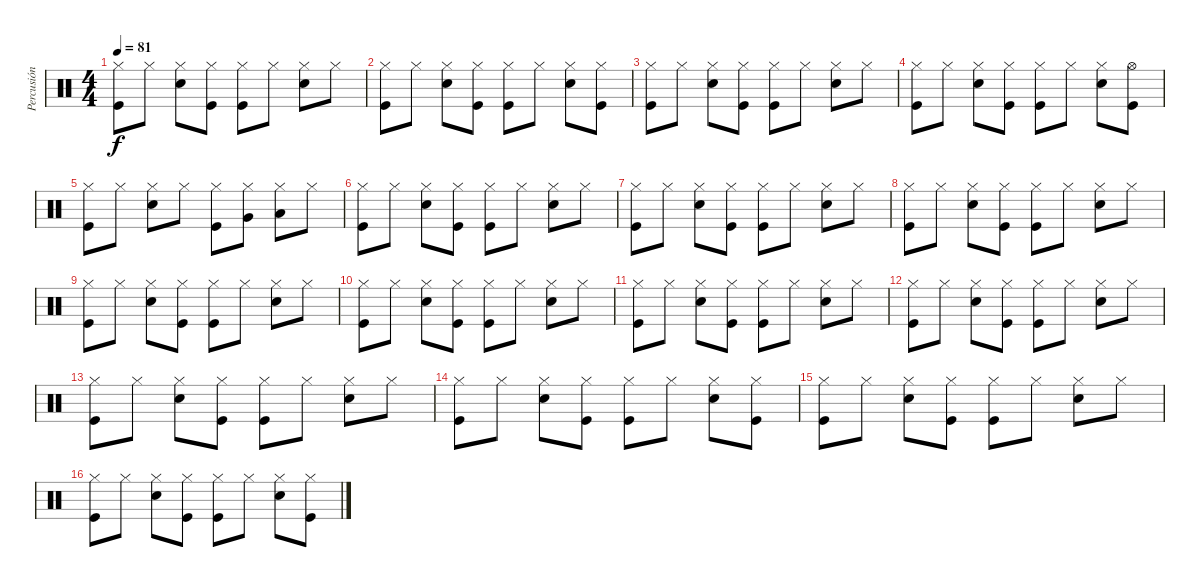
\track ("Percusión" "Percusión") {instrument percussion}
\staff {score}
\articulation defaults
\ts (4 4)
\tempo 81
\clef neutral
\ks c
("Hi-Hat (closed)" "Kick (hit)").8{dy f} "Hi-Hat (closed)".8 ("Hi-Hat (closed)" "Electric Snare (hit)").8 ("Hi-Hat (closed)" "Kick (hit)").8 ("Hi-Hat (closed)" "Kick (hit)").8 "Hi-Hat (closed)".8 ("Hi-Hat (closed)" "Electric Snare (hit)").8 "Hi-Hat (closed)".8 |
("Hi-Hat (closed)" "Kick (hit)").8 "Hi-Hat (closed)".8 ("Hi-Hat (closed)" "Electric Snare (hit)").8 ("Hi-Hat (closed)" "Kick (hit)").8 ("Hi-Hat (closed)" "Kick (hit)").8 "Hi-Hat (closed)".8 ("Hi-Hat (closed)" "Electric Snare (hit)").8 ("Hi-Hat (closed)" "Kick (hit)").8 |
("Hi-Hat (closed)" "Kick (hit)").8 "Hi-Hat (closed)".8 ("Hi-Hat (closed)" "Electric Snare (hit)").8 ("Hi-Hat (closed)" "Kick (hit)").8 ("Hi-Hat (closed)" "Kick (hit)").8 "Hi-Hat (closed)".8 ("Hi-Hat (closed)" "Electric Snare (hit)").8 "Hi-Hat (closed)".8 |
("Hi-Hat (closed)" "Kick (hit)").8 "Hi-Hat (closed)".8 ("Hi-Hat (closed)" "Electric Snare (hit)").8 ("Hi-Hat (closed)" "Kick (hit)").8 ("Hi-Hat (closed)" "Kick (hit)").8 "Hi-Hat (closed)".8 ("Hi-Hat (closed)" "Electric Snare (hit)").8 ("Hi-Hat (open)" "Kick (hit)").8 |
("Hi-Hat (closed)" "Kick (hit)").8 "Hi-Hat (closed)".8 ("Hi-Hat (closed)" "Electric Snare (hit)").8 "Hi-Hat (closed)".8 ("Hi-Hat (closed)" "Kick (hit)").8 ("Hi-Hat (closed)" "Very Low Tom (hit)").8 ("Hi-Hat (closed)" "Low Tom (hit)").8 "Hi-Hat (closed)".8 |
("Hi-Hat (closed)" "Kick (hit)").8 "Hi-Hat (closed)".8 ("Hi-Hat (closed)" "Electric Snare (hit)").8 ("Hi-Hat (closed)" "Kick (hit)").8 ("Hi-Hat (closed)" "Kick (hit)").8 "Hi-Hat (closed)".8 ("Hi-Hat (closed)" "Electric Snare (hit)").8 "Hi-Hat (closed)".8 |
("Hi-Hat (closed)" "Kick (hit)").8 "Hi-Hat (closed)".8 ("Hi-Hat (closed)" "Electric Snare (hit)").8 ("Hi-Hat (closed)" "Kick (hit)").8 ("Hi-Hat (closed)" "Kick (hit)").8 "Hi-Hat (closed)".8 ("Hi-Hat (closed)" "Electric Snare (hit)").8 "Hi-Hat (closed)".8 |
("Hi-Hat (closed)" "Kick (hit)").8 "Hi-Hat (closed)".8 ("Hi-Hat (closed)" "Electric Snare (hit)").8 ("Hi-Hat (closed)" "Kick (hit)").8 ("Hi-Hat (closed)" "Kick (hit)").8 "Hi-Hat (closed)".8 ("Hi-Hat (closed)" "Electric Snare (hit)").8 "Hi-Hat (closed)".8 |
("Hi-Hat (closed)" "Kick (hit)").8 "Hi-Hat (closed)".8 ("Hi-Hat (closed)" "Electric Snare (hit)").8 ("Hi-Hat (closed)" "Kick (hit)").8 ("Hi-Hat (closed)" "Kick (hit)").8 "Hi-Hat (closed)".8 ("Hi-Hat (closed)" "Electric Snare (hit)").8 "Hi-Hat (closed)".8 |
("Hi-Hat (closed)" "Kick (hit)").8 "Hi-Hat (closed)".8 ("Hi-Hat (closed)" "Electric Snare (hit)").8 ("Hi-Hat (closed)" "Kick (hit)").8 ("Hi-Hat (closed)" "Kick (hit)").8 "Hi-Hat (closed)".8 ("Hi-Hat (closed)" "Electric Snare (hit)").8 "Hi-Hat (closed)".8 |
("Hi-Hat (closed)" "Kick (hit)").8 "Hi-Hat (closed)".8 ("Hi-Hat (closed)" "Electric Snare (hit)").8 ("Hi-Hat (closed)" "Kick (hit)").8 ("Hi-Hat (closed)" "Kick (hit)").8 "Hi-Hat (closed)".8 ("Hi-Hat (closed)" "Electric Snare (hit)").8 "Hi-Hat (closed)".8 |
("Hi-Hat (closed)" "Kick (hit)").8 "Hi-Hat (closed)".8 ("Hi-Hat (closed)" "Electric Snare (hit)").8 ("Hi-Hat (closed)" "Kick (hit)").8 ("Hi-Hat (closed)" "Kick (hit)").8 "Hi-Hat (closed)".8 ("Hi-Hat (closed)" "Electric Snare (hit)").8 "Hi-Hat (closed)".8 |
("Hi-Hat (closed)" "Kick (hit)").8 "Hi-Hat (closed)".8 ("Hi-Hat (closed)" "Electric Snare (hit)").8 ("Hi-Hat (closed)" "Kick (hit)").8 ("Hi-Hat (closed)" "Kick (hit)").8 "Hi-Hat (closed)".8 ("Hi-Hat (closed)" "Electric Snare (hit)").8 "Hi-Hat (closed)".8 |
("Hi-Hat (closed)" "Kick (hit)").8 "Hi-Hat (closed)".8 ("Hi-Hat (closed)" "Electric Snare (hit)").8 ("Hi-Hat (closed)" "Kick (hit)").8 ("Hi-Hat (closed)" "Kick (hit)").8 "Hi-Hat (closed)".8 ("Hi-Hat (closed)" "Electric Snare (hit)").8 ("Hi-Hat (closed)" "Kick (hit)").8 |
("Hi-Hat (closed)" "Kick (hit)").8 "Hi-Hat (closed)".8 ("Hi-Hat (closed)" "Electric Snare (hit)").8 ("Hi-Hat (closed)" "Kick (hit)").8 ("Hi-Hat (closed)" "Kick (hit)").8 "Hi-Hat (closed)".8 ("Hi-Hat (closed)" "Electric Snare (hit)").8 "Hi-Hat (closed)".8 |
("Hi-Hat (closed)" "Kick (hit)").8 "Hi-Hat (closed)".8 ("Hi-Hat (closed)" "Electric Snare (hit)").8 ("Hi-Hat (closed)" "Kick (hit)").8 ("Hi-Hat (closed)" "Kick (hit)").8 "Hi-Hat (closed)".8 ("Hi-Hat (closed)" "Electric Snare (hit)").8 ("Hi-Hat (closed)" "Kick (hit)").8
